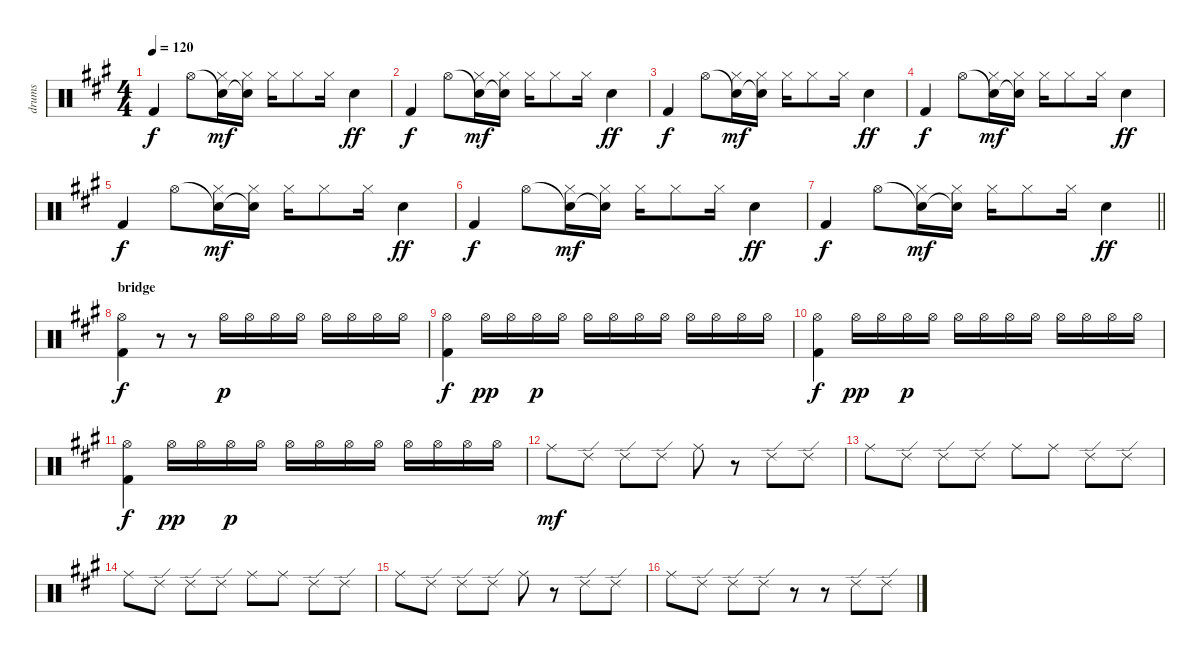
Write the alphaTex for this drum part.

\track ("drums" "drums") {instrument percussion}
\staff {score}
\articulation defaults
\ts (4 4)
\tempo 120
\clef neutral
\ks a "Kick (hit) 2".4{dy f} "Hi-Hat (open)".8
("Snare (hit)"{t} "Hi-Hat (closed)").16{dy mf} ("Snare (hit)"{t} "Hi-Hat (closed)").16 "Hi-Hat (closed)".16 "Hi-Hat (closed)".8 "Hi-Hat (closed)".16 "Electric Snare (hit)".4{dy ff} |
"Kick (hit) 2".4{dy f} "Hi-Hat (open)".8 ("Snare (hit)"{t} "Hi-Hat (closed)").16{dy mf} ("Snare (hit)"{t} "Hi-Hat (closed)").16 "Hi-Hat (closed)".16 "Hi-Hat (closed)".8 "Hi-Hat (closed)".16 "Electric Snare (hit)".4{dy ff} |
"Kick (hit) 2".4{dy f} "Hi-Hat (open)".8 ("Snare (hit)"{t} "Hi-Hat (closed)").16{dy mf} ("Snare (hit)"{t} "Hi-Hat (closed)").16 "Hi-Hat (closed)".16 "Hi-Hat (closed)".8 "Hi-Hat (closed)".16 "Electric Snare (hit)".4{dy ff} |
"Kick (hit) 2".4{dy f} "Hi-Hat (open)".8 ("Snare (hit)"{t} "Hi-Hat (closed)").16{dy mf} ("Snare (hit)"{t} "Hi-Hat (closed)").16 "Hi-Hat (closed)".16 "Hi-Hat (closed)".8 "Hi-Hat (closed)".16 "Electric Snare (hit)".4{dy ff} |
"Kick (hit) 2".4{dy f} "Hi-Hat (open)".8 ("Snare (hit)"{t} "Hi-Hat (closed)").16{dy mf} ("Snare (hit)"{t} "Hi-Hat (closed)").16 "Hi-Hat (closed)".16 "Hi-Hat (closed)".8 "Hi-Hat (closed)".16 "Electric Snare (hit)".4{dy ff} |
"Kick (hit) 2".4{dy f} "Hi-Hat (open)".8 ("Snare (hit)"{t} "Hi-Hat (closed)").16{dy mf} ("Snare (hit)"{t} "Hi-Hat (closed)").16 "Hi-Hat (closed)".16 "Hi-Hat (closed)".8 "Hi-Hat (closed)".16 "Electric Snare (hit)".4{dy ff} |
\barLineRight lightlight "Kick (hit) 2".4{dy f} "Hi-Hat (open)".8
("Snare (hit)"{t} "Hi-Hat (closed)").16{dy mf} ("Snare (hit)"{t} "Hi-Hat (closed)").16 "Hi-Hat (closed)".16 "Hi-Hat (closed)".8 "Hi-Hat (closed)".16 "Electric Snare (hit)".4{dy ff} |
\section ("" "bridge")
("Hi-Hat (open)" "Kick (hit) 2").4{dy f} r.8 r.8 "Hi-Hat (open)".16{dy p} "Hi-Hat (open)".16 "Hi-Hat (open)".16 "Hi-Hat (open)".16 "Hi-Hat (open)".16 "Hi-Hat (open)".16 "Hi-Hat (open)".16 "Hi-Hat (open)".16 |
("Hi-Hat (open)" "Kick (hit) 2").4{dy f} "Hi-Hat (open)".16{dy pp} "Hi-Hat (open)".16 "Hi-Hat (open)".16{dy p} "Hi-Hat (open)".16 "Hi-Hat (open)".16 "Hi-Hat (open)".16 "Hi-Hat (open)".16 "Hi-Hat (open)".16 "Hi-Hat (open)".16 "Hi-Hat (open)".16 "Hi-Hat (open)".16 "Hi-Hat (open)".16 |
("Hi-Hat (open)" "Kick (hit) 2").4{dy f} "Hi-Hat (open)".16{dy pp} "Hi-Hat (open)".16 "Hi-Hat (open)".16{dy p} "Hi-Hat (open)".16 "Hi-Hat (open)".16 "Hi-Hat (open)".16 "Hi-Hat (open)".16 "Hi-Hat (open)".16 "Hi-Hat (open)".16 "Hi-Hat (open)".16 "Hi-Hat (open)".16 "Hi-Hat (open)".16 |
("Hi-Hat (open)" "Kick (hit) 2").4{dy f} "Hi-Hat (open)".16{dy pp} "Hi-Hat (open)".16 "Hi-Hat (open)".16{dy p} "Hi-Hat (open)".16 "Hi-Hat (open)".16 "Hi-Hat (open)".16 "Hi-Hat (open)".16 "Hi-Hat (open)".16 "Hi-Hat (open)".16 "Hi-Hat (open)".16 "Hi-Hat (open)".16 "Hi-Hat (open)".16 |
"Ride (middle)".8{dy mf} "Ride (edge) 2".8 "Ride (edge) 2".8 "Ride (edge) 2".8 "Ride (middle)".8 r.8 "Ride (edge) 2".8 "Ride (edge) 2".8 |
"Ride (middle)".8 "Ride (edge) 2".8 "Ride (edge) 2".8 "Ride (edge) 2".8 "Ride (middle)".8 "Ride (middle)".8 "Ride (edge) 2".8 "Ride (edge) 2".8 |
"Ride (middle)".8 "Ride (edge) 2".8 "Ride (edge) 2".8 "Ride (edge) 2".8 "Ride (middle)".8 "Ride (middle)".8 "Ride (edge) 2".8 "Ride (edge) 2".8 |
"Ride (middle)".8 "Ride (edge) 2".8 "Ride (edge) 2".8 "Ride (edge) 2".8 "Ride (middle)".8 r.8 "Ride (edge) 2".8 "Ride (edge) 2".8 |
"Ride (middle)".8 "Ride (edge) 2".8 "Ride (edge) 2".8 "Ride (edge) 2".8 r.8 r.8 "Ride (edge) 2".8 "Ride (edge) 2".8
